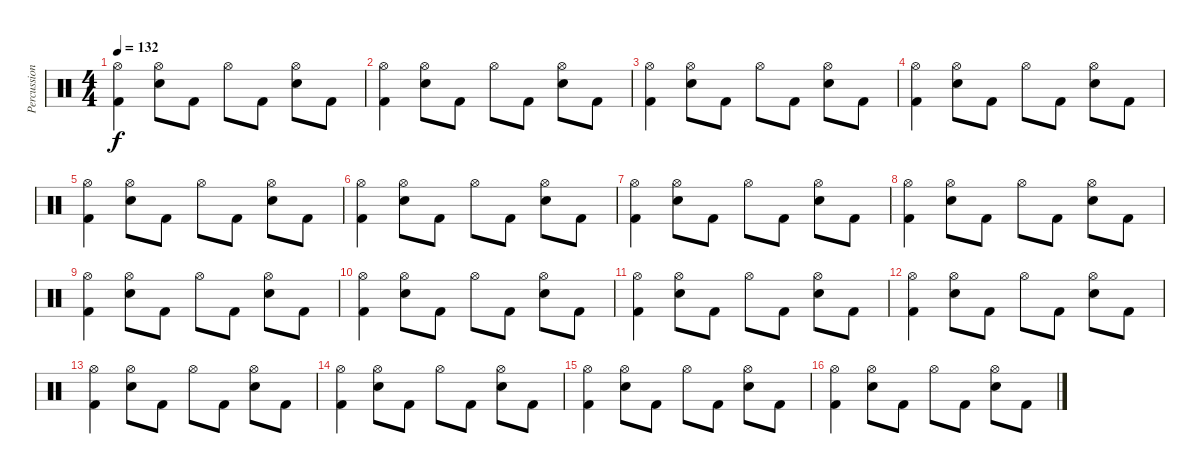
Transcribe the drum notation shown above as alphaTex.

\track ("Percussions" "Percussion") {instrument percussion}
\staff {score}
\articulation defaults
\ts (4 4)
\tempo 132
\clef neutral
\ks c
("Kick (hit) 2" "Hi-Hat (open)").4{dy f} ("Electric Snare (hit)" "Hi-Hat (open)").8 "Kick (hit) 2".8 "Hi-Hat (open)".8 "Kick (hit) 2".8 ("Electric Snare (hit)" "Hi-Hat (open)").8 "Kick (hit) 2".8 |
("Kick (hit) 2" "Hi-Hat (open)").4 ("Electric Snare (hit)" "Hi-Hat (open)").8 "Kick (hit) 2".8 "Hi-Hat (open)".8 "Kick (hit) 2".8 ("Electric Snare (hit)" "Hi-Hat (open)").8 "Kick (hit) 2".8 |
("Kick (hit) 2" "Hi-Hat (open)").4 ("Electric Snare (hit)" "Hi-Hat (open)").8 "Kick (hit) 2".8 "Hi-Hat (open)".8 "Kick (hit) 2".8 ("Electric Snare (hit)" "Hi-Hat (open)").8 "Kick (hit) 2".8 |
("Kick (hit) 2" "Hi-Hat (open)").4 ("Electric Snare (hit)" "Hi-Hat (open)").8 "Kick (hit) 2".8 "Hi-Hat (open)".8 "Kick (hit) 2".8 ("Electric Snare (hit)" "Hi-Hat (open)").8 "Kick (hit) 2".8 |
("Kick (hit) 2" "Hi-Hat (open)").4 ("Electric Snare (hit)" "Hi-Hat (open)").8 "Kick (hit) 2".8 "Hi-Hat (open)".8 "Kick (hit) 2".8 ("Electric Snare (hit)" "Hi-Hat (open)").8 "Kick (hit) 2".8 |
("Kick (hit) 2" "Hi-Hat (open)").4 ("Electric Snare (hit)" "Hi-Hat (open)").8 "Kick (hit) 2".8 "Hi-Hat (open)".8 "Kick (hit) 2".8 ("Electric Snare (hit)" "Hi-Hat (open)").8 "Kick (hit) 2".8 |
("Kick (hit) 2" "Hi-Hat (open)").4 ("Electric Snare (hit)" "Hi-Hat (open)").8 "Kick (hit) 2".8 "Hi-Hat (open)".8 "Kick (hit) 2".8 ("Electric Snare (hit)" "Hi-Hat (open)").8 "Kick (hit) 2".8 |
("Kick (hit) 2" "Hi-Hat (open)").4 ("Electric Snare (hit)" "Hi-Hat (open)").8 "Kick (hit) 2".8 "Hi-Hat (open)".8 "Kick (hit) 2".8 ("Electric Snare (hit)" "Hi-Hat (open)").8 "Kick (hit) 2".8 |
("Kick (hit) 2" "Hi-Hat (open)").4 ("Electric Snare (hit)" "Hi-Hat (open)").8 "Kick (hit) 2".8 "Hi-Hat (open)".8 "Kick (hit) 2".8 ("Electric Snare (hit)" "Hi-Hat (open)").8 "Kick (hit) 2".8 |
("Kick (hit) 2" "Hi-Hat (open)").4 ("Electric Snare (hit)" "Hi-Hat (open)").8 "Kick (hit) 2".8 "Hi-Hat (open)".8 "Kick (hit) 2".8 ("Electric Snare (hit)" "Hi-Hat (open)").8 "Kick (hit) 2".8 |
("Kick (hit) 2" "Hi-Hat (open)").4 ("Electric Snare (hit)" "Hi-Hat (open)").8 "Kick (hit) 2".8 "Hi-Hat (open)".8 "Kick (hit) 2".8 ("Electric Snare (hit)" "Hi-Hat (open)").8 "Kick (hit) 2".8 |
("Kick (hit) 2" "Hi-Hat (open)").4 ("Electric Snare (hit)" "Hi-Hat (open)").8 "Kick (hit) 2".8 "Hi-Hat (open)".8 "Kick (hit) 2".8 ("Electric Snare (hit)" "Hi-Hat (open)").8 "Kick (hit) 2".8 |
("Kick (hit) 2" "Hi-Hat (open)").4 ("Electric Snare (hit)" "Hi-Hat (open)").8 "Kick (hit) 2".8 "Hi-Hat (open)".8 "Kick (hit) 2".8 ("Electric Snare (hit)" "Hi-Hat (open)").8 "Kick (hit) 2".8 |
("Kick (hit) 2" "Hi-Hat (open)").4 ("Electric Snare (hit)" "Hi-Hat (open)").8 "Kick (hit) 2".8 "Hi-Hat (open)".8 "Kick (hit) 2".8 ("Electric Snare (hit)" "Hi-Hat (open)").8 "Kick (hit) 2".8 |
("Kick (hit) 2" "Hi-Hat (open)").4 ("Electric Snare (hit)" "Hi-Hat (open)").8 "Kick (hit) 2".8 "Hi-Hat (open)".8 "Kick (hit) 2".8 ("Electric Snare (hit)" "Hi-Hat (open)").8 "Kick (hit) 2".8 |
("Kick (hit) 2" "Hi-Hat (open)").4 ("Electric Snare (hit)" "Hi-Hat (open)").8 "Kick (hit) 2".8 "Hi-Hat (open)".8 "Kick (hit) 2".8 ("Electric Snare (hit)" "Hi-Hat (open)").8 "Kick (hit) 2".8
